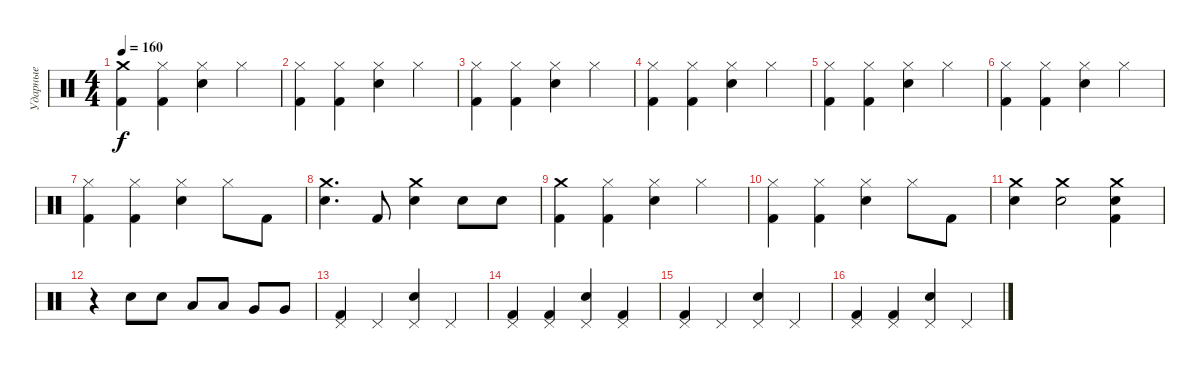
\track ("Ударные" "Ударные") {instrument percussion}
\staff {score}
\articulation defaults
\ts (4 4)
\tempo 160
\clef neutral
\ks c
("Crash medium (hit)" "Kick (hit) 2").4{dy f} ("Hi-Hat (closed)" "Kick (hit) 2").4 ("Electric Snare (hit)" "Hi-Hat (closed)").4 "Hi-Hat (closed)".4 |
("Hi-Hat (closed)" "Kick (hit) 2").4 ("Hi-Hat (closed)" "Kick (hit) 2").4 ("Electric Snare (hit)" "Hi-Hat (closed)").4 "Hi-Hat (closed)".4 |
("Hi-Hat (closed)" "Kick (hit) 2").4 ("Hi-Hat (closed)" "Kick (hit) 2").4 ("Electric Snare (hit)" "Hi-Hat (closed)").4 "Hi-Hat (closed)".4 |
("Hi-Hat (closed)" "Kick (hit) 2").4 ("Hi-Hat (closed)" "Kick (hit) 2").4 ("Electric Snare (hit)" "Hi-Hat (closed)").4 "Hi-Hat (closed)".4 |
("Hi-Hat (closed)" "Kick (hit) 2").4 ("Hi-Hat (closed)" "Kick (hit) 2").4 ("Electric Snare (hit)" "Hi-Hat (closed)").4 "Hi-Hat (closed)".4 |
("Hi-Hat (closed)" "Kick (hit) 2").4 ("Hi-Hat (closed)" "Kick (hit) 2").4 ("Electric Snare (hit)" "Hi-Hat (closed)").4 "Hi-Hat (closed)".4 |
("Hi-Hat (closed)" "Kick (hit) 2").4 ("Hi-Hat (closed)" "Kick (hit) 2").4 ("Electric Snare (hit)" "Hi-Hat (closed)").4 "Hi-Hat (closed)".8 "Kick (hit) 2".8 |
("Crash medium (hit)" "Electric Snare (hit)").4{d} "Kick (hit) 2".8 ("Crash medium (hit)" "Electric Snare (hit)").4 "Electric Snare (hit)".8 "Electric Snare (hit)".8 |
("Crash medium (hit)" "Kick (hit) 2").4 ("Hi-Hat (closed)" "Kick (hit) 2").4 ("Electric Snare (hit)" "Hi-Hat (closed)").4 "Hi-Hat (closed)".4 |
("Hi-Hat (closed)" "Kick (hit) 2").4 ("Hi-Hat (closed)" "Kick (hit) 2").4 ("Electric Snare (hit)" "Hi-Hat (closed)").4 "Hi-Hat (closed)".8 "Kick (hit) 2".8 |
("Crash medium (hit)" "Electric Snare (hit)").4 ("Crash medium (hit)" "Electric Snare (hit)").2 ("Crash medium (hit)" "Electric Snare (hit)" "Kick (hit) 2").4 |
r.4 "Electric Snare (hit)".8 "Electric Snare (hit)".8 "Low Tom (hit)".8 "Low Tom (hit)".8 "Very Low Tom (hit)".8 "Very Low Tom (hit)".8 |
("Pedal Hi-Hat (hit)" "Kick (hit) 2").4 "Pedal Hi-Hat (hit)".4 ("Electric Snare (hit)" "Pedal Hi-Hat (hit)").4 "Pedal Hi-Hat (hit)".4 |
("Pedal Hi-Hat (hit)" "Kick (hit) 2").4 ("Pedal Hi-Hat (hit)" "Kick (hit) 2").4 ("Electric Snare (hit)" "Pedal Hi-Hat (hit)").4 ("Pedal Hi-Hat (hit)" "Kick (hit) 2").4 |
("Pedal Hi-Hat (hit)" "Kick (hit) 2").4 "Pedal Hi-Hat (hit)".4 ("Electric Snare (hit)" "Pedal Hi-Hat (hit)").4 "Pedal Hi-Hat (hit)".4 |
("Pedal Hi-Hat (hit)" "Kick (hit) 2").4 ("Pedal Hi-Hat (hit)" "Kick (hit) 2").4 ("Electric Snare (hit)" "Pedal Hi-Hat (hit)").4 "Pedal Hi-Hat (hit)".4
